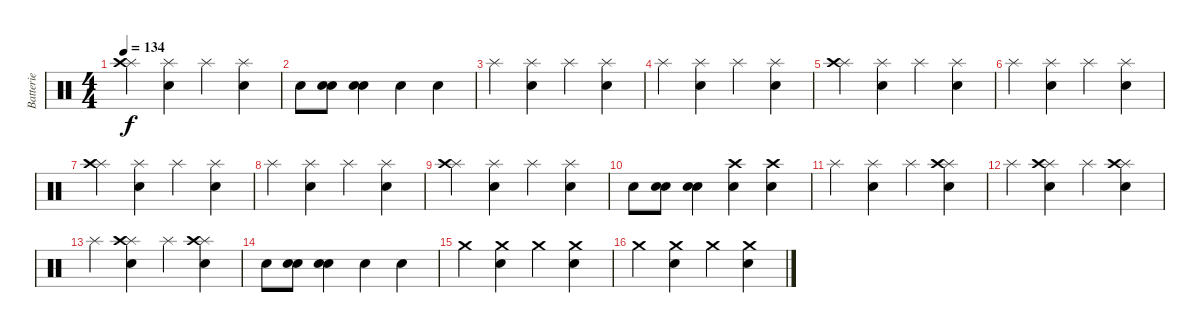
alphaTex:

\track ("Batterie" "Batterie") {instrument percussion}
\staff {score}
\articulation defaults
\ts (4 4)
\tempo 134
\clef neutral
\ks c
("Splash (hit)" "Crash high (hit)").4{dy f} ("Splash (hit)" "Electric Snare (hit)").4 "Splash (hit)".4 ("Splash (hit)" "Electric Snare (hit)").4 |
"Electric Snare (hit)".8 ("Electric Snare (hit)" "Electric Snare (hit)").8 ("Electric Snare (hit)" "Electric Snare (hit)").4 "Electric Snare (hit)".4 "Electric Snare (hit)".4 |
"Splash (hit)".4 ("Splash (hit)" "Electric Snare (hit)").4 "Splash (hit)".4 ("Splash (hit)" "Electric Snare (hit)").4 |
"Splash (hit)".4 ("Splash (hit)" "Electric Snare (hit)").4 "Splash (hit)".4 ("Splash (hit)" "Electric Snare (hit)").4 |
("Splash (hit)" "Crash high (hit)").4 ("Splash (hit)" "Electric Snare (hit)").4 "Splash (hit)".4 ("Splash (hit)" "Electric Snare (hit)").4 |
"Splash (hit)".4 ("Splash (hit)" "Electric Snare (hit)").4 "Splash (hit)".4 ("Splash (hit)" "Electric Snare (hit)").4 |
("Splash (hit)" "Crash high (hit)").4 ("Splash (hit)" "Electric Snare (hit)").4 "Splash (hit)".4 ("Splash (hit)" "Electric Snare (hit)").4 |
"Splash (hit)".4 ("Splash (hit)" "Electric Snare (hit)").4 "Splash (hit)".4 ("Splash (hit)" "Electric Snare (hit)").4 |
("Splash (hit)" "Crash high (hit)").4 ("Splash (hit)" "Electric Snare (hit)").4 "Splash (hit)".4 ("Splash (hit)" "Electric Snare (hit)").4 |
"Electric Snare (hit)".8 ("Electric Snare (hit)" "Electric Snare (hit)").8 ("Electric Snare (hit)" "Electric Snare (hit)").4 ("Electric Snare (hit)" "Crash high (hit)").4 ("Electric Snare (hit)" "Crash high (hit)").4 |
"Splash (hit)".4 ("Splash (hit)" "Electric Snare (hit)").4 "Splash (hit)".4 ("Splash (hit)" "Electric Snare (hit)" "Crash high (hit)").4 |
"Splash (hit)".4 ("Splash (hit)" "Electric Snare (hit)" "Crash high (hit)").4 "Splash (hit)".4 ("Splash (hit)" "Electric Snare (hit)" "Crash high (hit)").4 |
"Splash (hit)".4 ("Splash (hit)" "Electric Snare (hit)" "Crash high (hit)").4 "Splash (hit)".4 ("Splash (hit)" "Electric Snare (hit)" "Crash high (hit)").4 |
"Electric Snare (hit)".8 ("Electric Snare (hit)" "Electric Snare (hit)").8 ("Electric Snare (hit)" "Electric Snare (hit)").4 "Electric Snare (hit)".4 "Electric Snare (hit)".4 |
"Crash medium (hit)".4 ("Crash medium (hit)" "Electric Snare (hit)").4 "Crash medium (hit)".4 ("Crash medium (hit)" "Electric Snare (hit)").4 |
"Crash medium (hit)".4 ("Crash medium (hit)" "Electric Snare (hit)").4 "Crash medium (hit)".4 ("Crash medium (hit)" "Electric Snare (hit)").4
